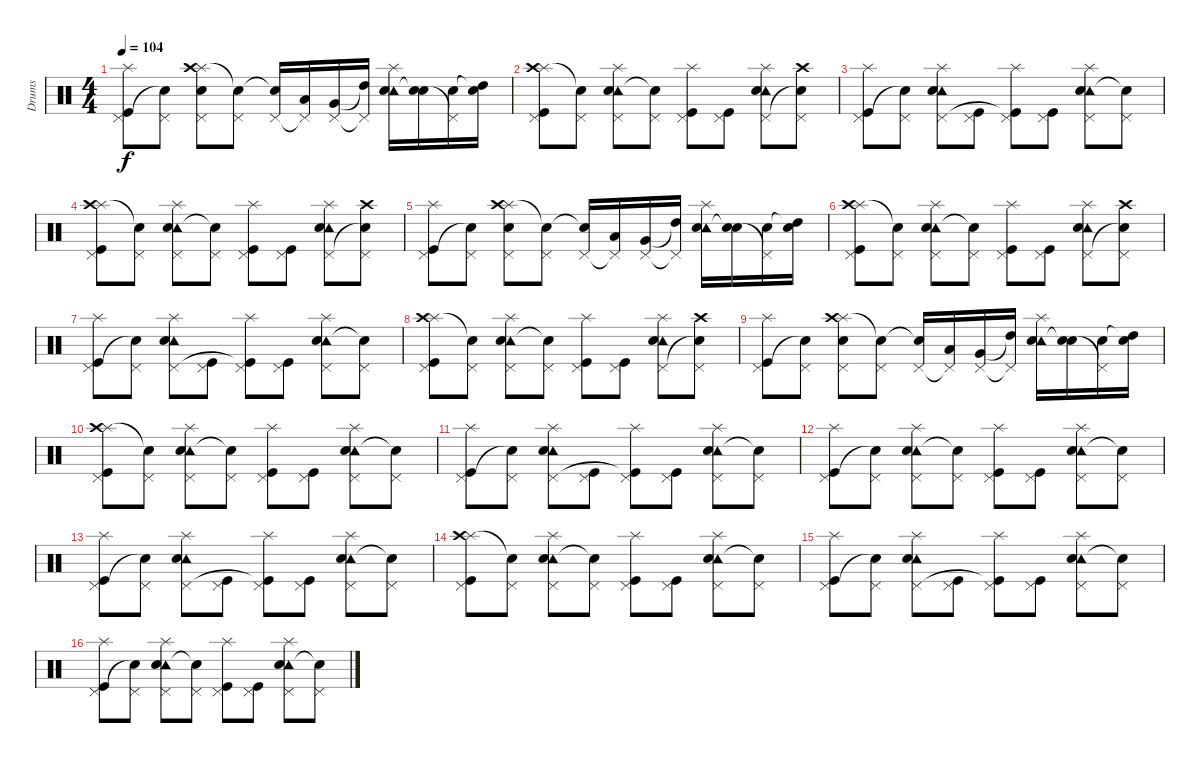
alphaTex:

\track ("Drums" "Drums") {instrument percussion}
\staff {score}
\articulation defaults
\ts (4 4)
\tempo 104
\clef neutral
\ks c
("Splash (hit)" "Pedal Hi-Hat (hit)" "Kick (hit)").8{dy f} ("Pedal Hi-Hat (hit)" "Snare (hit)"{t}).8 ("Splash (hit)" "Crash high (hit)" "Pedal Hi-Hat (hit)" "Snare (hit) 2").8 ("Pedal Hi-Hat (hit)" "Snare (hit)"{t}).8 ("Pedal Hi-Hat (hit)" "Snare (hit)"{t}).16 ("Pedal Hi-Hat (hit)"{t} "Low Tom (hit)").16 ("Pedal Hi-Hat (hit)" "Very Low Tom (hit)").16 ("Pedal Hi-Hat (hit)"{t} "High Tom (hit)"{t}).16 ("Splash (hit)" "Tambourine (hit)" "Electric Snare (hit)").16 ("Electric Snare (hit)" "Snare (hit)"{t}).16 ("Pedal Hi-Hat (hit)"{t} "Electric Snare (hit)").16 ("Electric Snare (hit)" "High Tom (hit)"{t}).16 |
("Splash (hit)" "Crash high (hit)" "Pedal Hi-Hat (hit)" "Kick (hit)").8 ("Pedal Hi-Hat (hit)" "Snare (hit)"{t}).8 ("Splash (hit)" "Tambourine (hit)" "Pedal Hi-Hat (hit)" "Snare (hit) 2").8 ("Pedal Hi-Hat (hit)" "Snare (hit)"{t}).8 ("Splash (hit)" "Pedal Hi-Hat (hit)" "Kick (hit)").8 ("Pedal Hi-Hat (hit)" "Kick (hit)").8 ("Splash (hit)" "Tambourine (hit)" "Pedal Hi-Hat (hit)" "Snare (hit) 2").8 ("Crash high (hit)" "Pedal Hi-Hat (hit)" "Snare (hit)"{t}).8 |
("Splash (hit)" "Pedal Hi-Hat (hit)" "Kick (hit)").8 ("Pedal Hi-Hat (hit)" "Snare (hit)"{t}).8 ("Splash (hit)" "Tambourine (hit)" "Pedal Hi-Hat (hit)" "Snare (hit) 2").8 ("Pedal Hi-Hat (hit)" "Kick (hit)").8 ("Splash (hit)" "Pedal Hi-Hat (hit)" "Kick (hit)"{t}).8 ("Pedal Hi-Hat (hit)" "Kick (hit)").8 ("Splash (hit)" "Tambourine (hit)" "Pedal Hi-Hat (hit)" "Snare (hit) 2").8 ("Pedal Hi-Hat (hit)" "Snare (hit) 2"{t}).8 |
("Splash (hit)" "Crash high (hit)" "Pedal Hi-Hat (hit)" "Kick (hit)").8 ("Pedal Hi-Hat (hit)" "Snare (hit)"{t}).8 ("Splash (hit)" "Tambourine (hit)" "Pedal Hi-Hat (hit)" "Snare (hit) 2").8 ("Pedal Hi-Hat (hit)" "Snare (hit)"{t}).8 ("Splash (hit)" "Pedal Hi-Hat (hit)" "Kick (hit)").8 ("Pedal Hi-Hat (hit)" "Kick (hit)").8 ("Splash (hit)" "Tambourine (hit)" "Pedal Hi-Hat (hit)" "Snare (hit) 2").8 ("Crash high (hit)" "Pedal Hi-Hat (hit)" "Snare (hit)"{t}).8 |
("Splash (hit)" "Pedal Hi-Hat (hit)" "Kick (hit)").8 ("Pedal Hi-Hat (hit)" "Snare (hit)"{t}).8 ("Splash (hit)" "Crash high (hit)" "Pedal Hi-Hat (hit)" "Snare (hit) 2").8 ("Pedal Hi-Hat (hit)" "Snare (hit)"{t}).8 ("Pedal Hi-Hat (hit)" "Snare (hit)"{t}).16 ("Pedal Hi-Hat (hit)"{t} "Low Tom (hit)").16 ("Pedal Hi-Hat (hit)" "Very Low Tom (hit)").16 ("Pedal Hi-Hat (hit)"{t} "High Tom (hit)"{t}).16 ("Splash (hit)" "Tambourine (hit)" "Electric Snare (hit)").16 ("Electric Snare (hit)" "Snare (hit)"{t}).16 ("Pedal Hi-Hat (hit)"{t} "Electric Snare (hit)").16 ("Electric Snare (hit)" "High Tom (hit)"{t}).16 |
("Splash (hit)" "Crash high (hit)" "Pedal Hi-Hat (hit)" "Kick (hit)").8 ("Pedal Hi-Hat (hit)" "Snare (hit)"{t}).8 ("Splash (hit)" "Tambourine (hit)" "Pedal Hi-Hat (hit)" "Snare (hit) 2").8 ("Pedal Hi-Hat (hit)" "Snare (hit)"{t}).8 ("Splash (hit)" "Pedal Hi-Hat (hit)" "Kick (hit)").8 ("Pedal Hi-Hat (hit)" "Kick (hit)").8 ("Splash (hit)" "Tambourine (hit)" "Pedal Hi-Hat (hit)" "Snare (hit) 2").8 ("Crash high (hit)" "Pedal Hi-Hat (hit)" "Snare (hit)"{t}).8 |
("Splash (hit)" "Pedal Hi-Hat (hit)" "Kick (hit)").8 ("Pedal Hi-Hat (hit)" "Snare (hit)"{t}).8 ("Splash (hit)" "Tambourine (hit)" "Pedal Hi-Hat (hit)" "Snare (hit) 2").8 ("Pedal Hi-Hat (hit)" "Kick (hit)").8 ("Splash (hit)" "Pedal Hi-Hat (hit)" "Kick (hit)"{t}).8 ("Pedal Hi-Hat (hit)" "Kick (hit)").8 ("Splash (hit)" "Tambourine (hit)" "Pedal Hi-Hat (hit)" "Snare (hit) 2").8 ("Pedal Hi-Hat (hit)" "Snare (hit) 2"{t}).8 |
("Splash (hit)" "Crash high (hit)" "Pedal Hi-Hat (hit)" "Kick (hit)").8 ("Pedal Hi-Hat (hit)" "Snare (hit)"{t}).8 ("Splash (hit)" "Tambourine (hit)" "Pedal Hi-Hat (hit)" "Snare (hit) 2").8 ("Pedal Hi-Hat (hit)" "Snare (hit)"{t}).8 ("Splash (hit)" "Pedal Hi-Hat (hit)" "Kick (hit)").8 ("Pedal Hi-Hat (hit)" "Kick (hit)").8 ("Splash (hit)" "Tambourine (hit)" "Pedal Hi-Hat (hit)" "Snare (hit) 2").8 ("Crash high (hit)" "Pedal Hi-Hat (hit)" "Snare (hit)"{t}).8 |
("Splash (hit)" "Pedal Hi-Hat (hit)" "Kick (hit)").8 ("Pedal Hi-Hat (hit)" "Snare (hit)"{t}).8 ("Splash (hit)" "Crash high (hit)" "Pedal Hi-Hat (hit)" "Snare (hit) 2").8 ("Pedal Hi-Hat (hit)" "Snare (hit)"{t}).8 ("Pedal Hi-Hat (hit)" "Snare (hit)"{t}).16 ("Pedal Hi-Hat (hit)"{t} "Low Tom (hit)").16 ("Pedal Hi-Hat (hit)" "Very Low Tom (hit)").16 ("Pedal Hi-Hat (hit)"{t} "High Tom (hit)"{t}).16 ("Splash (hit)" "Tambourine (hit)" "Electric Snare (hit)").16 ("Electric Snare (hit)" "Snare (hit)"{t}).16 ("Pedal Hi-Hat (hit)"{t} "Electric Snare (hit)").16 ("Electric Snare (hit)" "High Tom (hit)"{t}).16 |
("Splash (hit)" "Crash high (hit)" "Pedal Hi-Hat (hit)" "Kick (hit)").8 ("Pedal Hi-Hat (hit)" "Snare (hit)"{t}).8 ("Splash (hit)" "Tambourine (hit)" "Pedal Hi-Hat (hit)" "Snare (hit) 2").8 ("Pedal Hi-Hat (hit)" "Snare (hit)"{t}).8 ("Splash (hit)" "Pedal Hi-Hat (hit)" "Kick (hit)").8 ("Pedal Hi-Hat (hit)" "Kick (hit)").8 ("Splash (hit)" "Tambourine (hit)" "Pedal Hi-Hat (hit)" "Snare (hit) 2").8 ("Pedal Hi-Hat (hit)" "Snare (hit)"{t}).8 |
("Splash (hit)" "Pedal Hi-Hat (hit)" "Kick (hit)").8 ("Pedal Hi-Hat (hit)" "Snare (hit)"{t}).8 ("Splash (hit)" "Tambourine (hit)" "Pedal Hi-Hat (hit)" "Snare (hit) 2").8 ("Pedal Hi-Hat (hit)" "Kick (hit)").8 ("Splash (hit)" "Pedal Hi-Hat (hit)" "Kick (hit)"{t}).8 ("Pedal Hi-Hat (hit)" "Kick (hit)").8 ("Splash (hit)" "Tambourine (hit)" "Pedal Hi-Hat (hit)" "Snare (hit) 2").8 ("Pedal Hi-Hat (hit)" "Snare (hit) 2"{t}).8 |
("Splash (hit)" "Pedal Hi-Hat (hit)" "Kick (hit)").8 ("Pedal Hi-Hat (hit)" "Snare (hit)"{t}).8 ("Splash (hit)" "Tambourine (hit)" "Pedal Hi-Hat (hit)" "Snare (hit) 2").8 ("Pedal Hi-Hat (hit)" "Snare (hit)"{t}).8 ("Splash (hit)" "Pedal Hi-Hat (hit)" "Kick (hit)").8 ("Pedal Hi-Hat (hit)" "Kick (hit)").8 ("Splash (hit)" "Tambourine (hit)" "Pedal Hi-Hat (hit)" "Snare (hit) 2").8 ("Pedal Hi-Hat (hit)" "Snare (hit)"{t}).8 |
("Splash (hit)" "Pedal Hi-Hat (hit)" "Kick (hit)").8 ("Pedal Hi-Hat (hit)" "Snare (hit)"{t}).8 ("Splash (hit)" "Tambourine (hit)" "Pedal Hi-Hat (hit)" "Snare (hit) 2").8 ("Pedal Hi-Hat (hit)" "Kick (hit)").8 ("Splash (hit)" "Pedal Hi-Hat (hit)" "Kick (hit)"{t}).8 ("Pedal Hi-Hat (hit)" "Kick (hit)").8 ("Splash (hit)" "Tambourine (hit)" "Pedal Hi-Hat (hit)" "Snare (hit) 2").8 ("Pedal Hi-Hat (hit)" "Snare (hit) 2"{t}).8 |
("Splash (hit)" "Crash high (hit)" "Pedal Hi-Hat (hit)" "Kick (hit)").8 ("Pedal Hi-Hat (hit)" "Snare (hit)"{t}).8 ("Splash (hit)" "Tambourine (hit)" "Pedal Hi-Hat (hit)" "Snare (hit) 2").8 ("Pedal Hi-Hat (hit)" "Snare (hit)"{t}).8 ("Splash (hit)" "Pedal Hi-Hat (hit)" "Kick (hit)").8 ("Pedal Hi-Hat (hit)" "Kick (hit)").8 ("Splash (hit)" "Tambourine (hit)" "Pedal Hi-Hat (hit)" "Snare (hit) 2").8 ("Pedal Hi-Hat (hit)" "Snare (hit)"{t}).8 |
("Splash (hit)" "Pedal Hi-Hat (hit)" "Kick (hit)").8 ("Pedal Hi-Hat (hit)" "Snare (hit)"{t}).8 ("Splash (hit)" "Tambourine (hit)" "Pedal Hi-Hat (hit)" "Snare (hit) 2").8 ("Pedal Hi-Hat (hit)" "Kick (hit)").8 ("Splash (hit)" "Pedal Hi-Hat (hit)" "Kick (hit)"{t}).8 ("Pedal Hi-Hat (hit)" "Kick (hit)").8 ("Splash (hit)" "Tambourine (hit)" "Pedal Hi-Hat (hit)" "Snare (hit) 2").8 ("Pedal Hi-Hat (hit)" "Snare (hit) 2"{t}).8 |
("Splash (hit)" "Pedal Hi-Hat (hit)" "Kick (hit)").8 ("Pedal Hi-Hat (hit)" "Snare (hit)"{t}).8 ("Splash (hit)" "Tambourine (hit)" "Pedal Hi-Hat (hit)" "Snare (hit) 2").8 ("Pedal Hi-Hat (hit)" "Snare (hit)"{t}).8 ("Splash (hit)" "Pedal Hi-Hat (hit)" "Kick (hit)").8 ("Pedal Hi-Hat (hit)" "Kick (hit)").8 ("Splash (hit)" "Tambourine (hit)" "Pedal Hi-Hat (hit)" "Snare (hit) 2").8 ("Pedal Hi-Hat (hit)" "Snare (hit)"{t}).8
